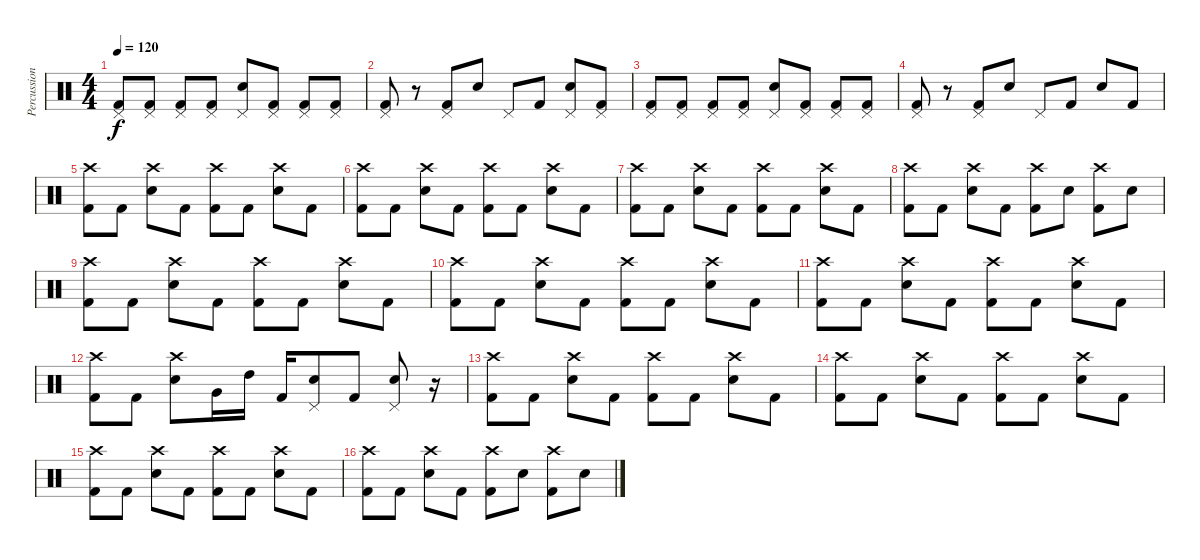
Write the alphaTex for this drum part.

\track ("Percussion" "Percussion") {instrument percussion}
\staff {score}
\articulation defaults
\ts (4 4)
\tempo 120
\clef neutral
\ks c
("Pedal Hi-Hat (hit)" "Kick (hit) 2").8{dy f} ("Pedal Hi-Hat (hit)" "Kick (hit) 2").8 ("Pedal Hi-Hat (hit)" "Kick (hit) 2").8 ("Pedal Hi-Hat (hit)" "Kick (hit) 2").8 ("Pedal Hi-Hat (hit)" "Electric Snare (hit)").8 ("Pedal Hi-Hat (hit)" "Kick (hit) 2").8 ("Pedal Hi-Hat (hit)" "Kick (hit) 2").8 ("Pedal Hi-Hat (hit)" "Kick (hit) 2").8 |
("Pedal Hi-Hat (hit)" "Kick (hit) 2").8 r.8 ("Pedal Hi-Hat (hit)" "Kick (hit) 2").8 "Electric Snare (hit)".8 "Pedal Hi-Hat (hit)".8 "Kick (hit) 2".8 ("Pedal Hi-Hat (hit)" "Electric Snare (hit)").8 ("Pedal Hi-Hat (hit)" "Kick (hit) 2").8 |
("Pedal Hi-Hat (hit)" "Kick (hit) 2").8 ("Pedal Hi-Hat (hit)" "Kick (hit) 2").8 ("Pedal Hi-Hat (hit)" "Kick (hit) 2").8 ("Pedal Hi-Hat (hit)" "Kick (hit) 2").8 ("Pedal Hi-Hat (hit)" "Electric Snare (hit)").8 ("Pedal Hi-Hat (hit)" "Kick (hit) 2").8 ("Pedal Hi-Hat (hit)" "Kick (hit) 2").8 ("Pedal Hi-Hat (hit)" "Kick (hit) 2").8 |
("Pedal Hi-Hat (hit)" "Kick (hit) 2").8 r.8 ("Pedal Hi-Hat (hit)" "Kick (hit) 2").8 "Electric Snare (hit)".8 "Pedal Hi-Hat (hit)".8 "Kick (hit) 2".8 "Electric Snare (hit)".8 "Kick (hit) 2".8 |
("Crash high (hit)" "Kick (hit) 2").8 "Kick (hit) 2".8 ("Crash high (hit)" "Electric Snare (hit)").8 "Kick (hit) 2".8 ("Crash high (hit)" "Kick (hit) 2").8 "Kick (hit) 2".8 ("Crash high (hit)" "Electric Snare (hit)").8 "Kick (hit) 2".8 |
("Crash high (hit)" "Kick (hit) 2").8 "Kick (hit) 2".8 ("Crash high (hit)" "Electric Snare (hit)").8 "Kick (hit) 2".8 ("Crash high (hit)" "Kick (hit) 2").8 "Kick (hit) 2".8 ("Crash high (hit)" "Electric Snare (hit)").8 "Kick (hit) 2".8 |
("Crash high (hit)" "Kick (hit) 2").8 "Kick (hit) 2".8 ("Crash high (hit)" "Electric Snare (hit)").8 "Kick (hit) 2".8 ("Crash high (hit)" "Kick (hit) 2").8 "Kick (hit) 2".8 ("Crash high (hit)" "Electric Snare (hit)").8 "Kick (hit) 2".8 |
("Crash high (hit)" "Kick (hit) 2").8 "Kick (hit) 2".8 ("Crash high (hit)" "Electric Snare (hit)").8 "Kick (hit) 2".8 ("Crash high (hit)" "Kick (hit) 2").8 "Electric Snare (hit)".8 ("Crash high (hit)" "Kick (hit) 2").8 "Electric Snare (hit)".8 |
("Crash high (hit)" "Kick (hit) 2").8 "Kick (hit) 2".8 ("Crash high (hit)" "Electric Snare (hit)").8 "Kick (hit) 2".8 ("Crash high (hit)" "Kick (hit) 2").8 "Kick (hit) 2".8 ("Crash high (hit)" "Electric Snare (hit)").8 "Kick (hit) 2".8 |
("Crash high (hit)" "Kick (hit) 2").8 "Kick (hit) 2".8 ("Crash high (hit)" "Electric Snare (hit)").8 "Kick (hit) 2".8 ("Crash high (hit)" "Kick (hit) 2").8 "Kick (hit) 2".8 ("Crash high (hit)" "Electric Snare (hit)").8 "Kick (hit) 2".8 |
("Crash high (hit)" "Kick (hit) 2").8 "Kick (hit) 2".8 ("Crash high (hit)" "Electric Snare (hit)").8 "Kick (hit) 2".8 ("Crash high (hit)" "Kick (hit) 2").8 "Kick (hit) 2".8 ("Crash high (hit)" "Electric Snare (hit)").8 "Kick (hit) 2".8 |
("Crash high (hit)" "Kick (hit) 2").8 "Kick (hit) 2".8 ("Crash high (hit)" "Electric Snare (hit)").8 "Very Low Tom (hit)".16 "High Tom (hit)".16 "Kick (hit) 2".16 ("Pedal Hi-Hat (hit)" "Electric Snare (hit)").8 "Kick (hit) 2".8 ("Pedal Hi-Hat (hit)" "Electric Snare (hit)").8 r.16 |
("Crash high (hit)" "Kick (hit) 2").8 "Kick (hit) 2".8 ("Crash high (hit)" "Electric Snare (hit)").8 "Kick (hit) 2".8 ("Crash high (hit)" "Kick (hit) 2").8 "Kick (hit) 2".8 ("Crash high (hit)" "Electric Snare (hit)").8 "Kick (hit) 2".8 |
("Crash high (hit)" "Kick (hit) 2").8 "Kick (hit) 2".8 ("Crash high (hit)" "Electric Snare (hit)").8 "Kick (hit) 2".8 ("Crash high (hit)" "Kick (hit) 2").8 "Kick (hit) 2".8 ("Crash high (hit)" "Electric Snare (hit)").8 "Kick (hit) 2".8 |
("Crash high (hit)" "Kick (hit) 2").8 "Kick (hit) 2".8 ("Crash high (hit)" "Electric Snare (hit)").8 "Kick (hit) 2".8 ("Crash high (hit)" "Kick (hit) 2").8 "Kick (hit) 2".8 ("Crash high (hit)" "Electric Snare (hit)").8 "Kick (hit) 2".8 |
("Crash high (hit)" "Kick (hit) 2").8 "Kick (hit) 2".8 ("Crash high (hit)" "Electric Snare (hit)").8 "Kick (hit) 2".8 ("Crash high (hit)" "Kick (hit) 2").8 "Electric Snare (hit)".8 ("Crash high (hit)" "Kick (hit) 2").8 "Electric Snare (hit)".8
